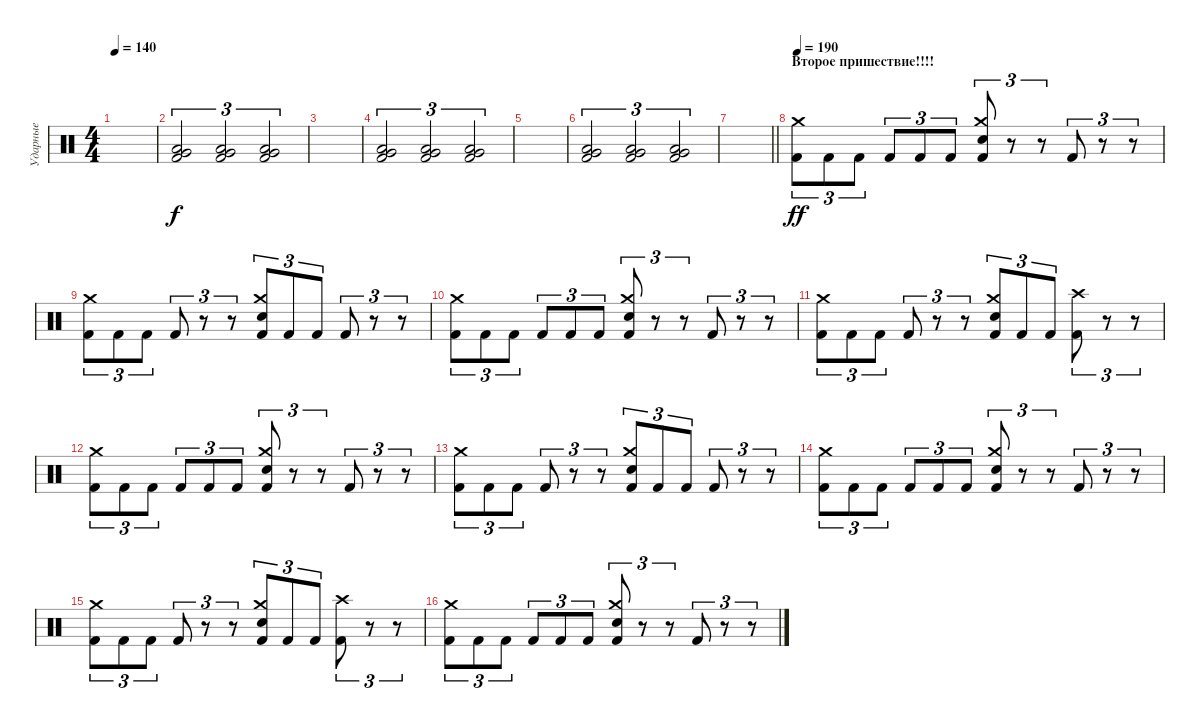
\track ("Ударные" "Ударные") {instrument percussion}
\staff {score}
\articulation defaults
\ts (4 4)
\tempo 140
\clef neutral
\ks c
|
("Low Tom (hit)" "Kick (hit) 2" "Very Low Tom (hit)").2{tu (3 2)} ("Low Tom (hit)" "Kick (hit) 2" "Very Low Tom (hit)").2{tu (3 2)} ("Low Tom (hit)" "Kick (hit) 2" "Very Low Tom (hit)").2{tu (3 2)} |
|
("Low Tom (hit)" "Kick (hit) 2" "Very Low Tom (hit)").2{tu (3 2)} ("Low Tom (hit)" "Kick (hit) 2" "Very Low Tom (hit)").2{tu (3 2)} ("Low Tom (hit)" "Kick (hit) 2" "Very Low Tom (hit)").2{tu (3 2)} |
|
("Low Tom (hit)" "Kick (hit) 2" "Very Low Tom (hit)").2{tu (3 2)} ("Low Tom (hit)" "Kick (hit) 2" "Very Low Tom (hit)").2{tu (3 2)} ("Low Tom (hit)" "Kick (hit) 2" "Very Low Tom (hit)").2{tu (3 2)} |
\barLineRight lightlight
|
\section ("" "Второе пришествие!!!!")
\tempo 190
("Kick (hit) 2" "Crash medium (hit)").8{tu (3 2) dy ff} "Kick (hit) 2".8{tu (3 2)} "Kick (hit) 2".8{tu (3 2)} "Kick (hit) 2".8{tu (3 2)} "Kick (hit) 2".8{tu (3 2)} "Kick (hit) 2".8{tu (3 2)} ("Kick (hit) 2" "Snare (hit) 2" "Crash medium (hit)").8{tu (3 2)} r.8{tu (3 2)} r.8{tu (3 2)} "Kick (hit) 2".8{tu (3 2)} r.8{tu (3 2)} r.8{tu (3 2)} |
("Kick (hit) 2" "Crash medium (hit)").8{tu (3 2)} "Kick (hit) 2".8{tu (3 2)} "Kick (hit) 2".8{tu (3 2)} "Kick (hit) 2".8{tu (3 2)} r.8{tu (3 2)} r.8{tu (3 2)} ("Kick (hit) 2" "Snare (hit) 2" "Crash medium (hit)").8{tu (3 2)} "Kick (hit) 2".8{tu (3 2)} "Kick (hit) 2".8{tu (3 2)} "Kick (hit) 2".8{tu (3 2)} r.8{tu (3 2)} r.8{tu (3 2)} |
("Kick (hit) 2" "Crash medium (hit)").8{tu (3 2)} "Kick (hit) 2".8{tu (3 2)} "Kick (hit) 2".8{tu (3 2)} "Kick (hit) 2".8{tu (3 2)} "Kick (hit) 2".8{tu (3 2)} "Kick (hit) 2".8{tu (3 2)} ("Kick (hit) 2" "Snare (hit) 2" "Crash medium (hit)").8{tu (3 2)} r.8{tu (3 2)} r.8{tu (3 2)} "Kick (hit) 2".8{tu (3 2)} r.8{tu (3 2)} r.8{tu (3 2)} |
("Kick (hit) 2" "Crash medium (hit)").8{tu (3 2)} "Kick (hit) 2".8{tu (3 2)} "Kick (hit) 2".8{tu (3 2)} "Kick (hit) 2".8{tu (3 2)} r.8{tu (3 2)} r.8{tu (3 2)} ("Kick (hit) 2" "Snare (hit) 2" "Crash medium (hit)").8{tu (3 2)} "Kick (hit) 2".8{tu (3 2)} "Kick (hit) 2".8{tu (3 2)} ("Kick (hit) 2" "Crash high (hit)").8{tu (3 2)} r.8{tu (3 2)} r.8{tu (3 2)} |
("Kick (hit) 2" "Crash medium (hit)").8{tu (3 2)} "Kick (hit) 2".8{tu (3 2)} "Kick (hit) 2".8{tu (3 2)} "Kick (hit) 2".8{tu (3 2)} "Kick (hit) 2".8{tu (3 2)} "Kick (hit) 2".8{tu (3 2)} ("Kick (hit) 2" "Snare (hit) 2" "Crash medium (hit)").8{tu (3 2)} r.8{tu (3 2)} r.8{tu (3 2)} "Kick (hit) 2".8{tu (3 2)} r.8{tu (3 2)} r.8{tu (3 2)} |
("Kick (hit) 2" "Crash medium (hit)").8{tu (3 2)} "Kick (hit) 2".8{tu (3 2)} "Kick (hit) 2".8{tu (3 2)} "Kick (hit) 2".8{tu (3 2)} r.8{tu (3 2)} r.8{tu (3 2)} ("Kick (hit) 2" "Snare (hit) 2" "Crash medium (hit)").8{tu (3 2)} "Kick (hit) 2".8{tu (3 2)} "Kick (hit) 2".8{tu (3 2)} "Kick (hit) 2".8{tu (3 2)} r.8{tu (3 2)} r.8{tu (3 2)} |
("Kick (hit) 2" "Crash medium (hit)").8{tu (3 2)} "Kick (hit) 2".8{tu (3 2)} "Kick (hit) 2".8{tu (3 2)} "Kick (hit) 2".8{tu (3 2)} "Kick (hit) 2".8{tu (3 2)} "Kick (hit) 2".8{tu (3 2)} ("Kick (hit) 2" "Snare (hit) 2" "Crash medium (hit)").8{tu (3 2)} r.8{tu (3 2)} r.8{tu (3 2)} "Kick (hit) 2".8{tu (3 2)} r.8{tu (3 2)} r.8{tu (3 2)} |
("Kick (hit) 2" "Crash medium (hit)").8{tu (3 2)} "Kick (hit) 2".8{tu (3 2)} "Kick (hit) 2".8{tu (3 2)} "Kick (hit) 2".8{tu (3 2)} r.8{tu (3 2)} r.8{tu (3 2)} ("Kick (hit) 2" "Snare (hit) 2" "Crash medium (hit)").8{tu (3 2)} "Kick (hit) 2".8{tu (3 2)} "Kick (hit) 2".8{tu (3 2)} ("Kick (hit) 2" "Crash high (hit)").8{tu (3 2)} r.8{tu (3 2)} r.8{tu (3 2)} |
("Kick (hit) 2" "Crash medium (hit)").8{tu (3 2)} "Kick (hit) 2".8{tu (3 2)} "Kick (hit) 2".8{tu (3 2)} "Kick (hit) 2".8{tu (3 2)} "Kick (hit) 2".8{tu (3 2)} "Kick (hit) 2".8{tu (3 2)} ("Kick (hit) 2" "Snare (hit) 2" "Crash medium (hit)").8{tu (3 2)} r.8{tu (3 2)} r.8{tu (3 2)} "Kick (hit) 2".8{tu (3 2)} r.8{tu (3 2)} r.8{tu (3 2)}
